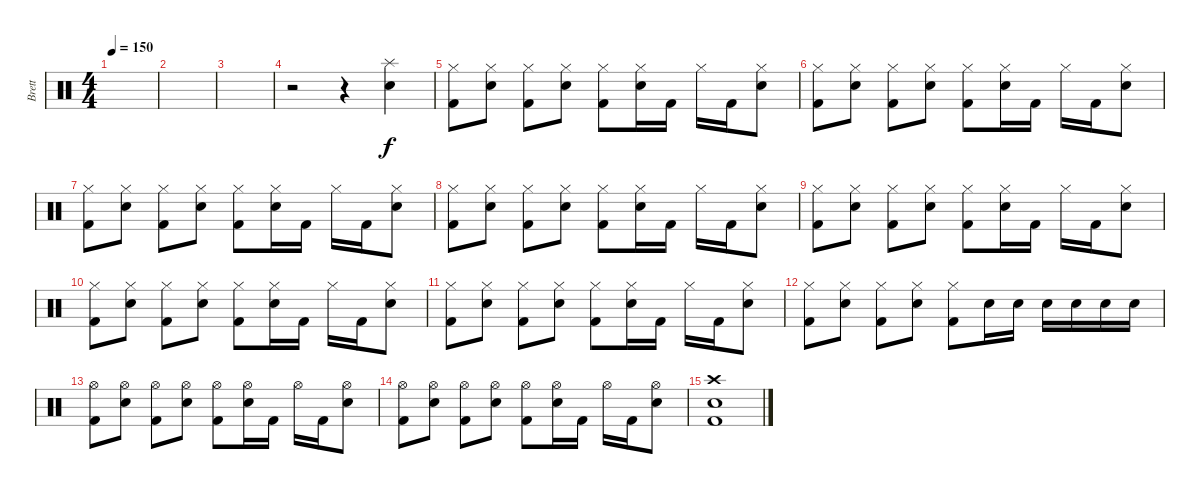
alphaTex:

\track ("Brett" "Brett") {instrument percussion}
\staff {score}
\articulation defaults
\ts (4 4)
\tempo 150
\clef neutral
\ks c
|
|
|
r.2 r.4 ("Splash (hit)" "Snare (hit) 2").4 |
("Hi-Hat (closed)" "Kick (hit) 2").8 ("Hi-Hat (closed)" "Snare (hit) 2").8 ("Hi-Hat (closed)" "Kick (hit) 2").8 ("Hi-Hat (closed)" "Snare (hit) 2").8 ("Hi-Hat (closed)" "Kick (hit) 2").8 ("Hi-Hat (closed)" "Snare (hit) 2").16 "Kick (hit) 2".16 "Hi-Hat (closed)".16 "Kick (hit) 2".16 ("Hi-Hat (closed)" "Snare (hit) 2").8 |
("Hi-Hat (closed)" "Kick (hit) 2").8 ("Hi-Hat (closed)" "Snare (hit) 2").8 ("Hi-Hat (closed)" "Kick (hit) 2").8 ("Hi-Hat (closed)" "Snare (hit) 2").8 ("Hi-Hat (closed)" "Kick (hit) 2").8 ("Hi-Hat (closed)" "Snare (hit) 2").16 "Kick (hit) 2".16 "Hi-Hat (closed)".16 "Kick (hit) 2".16 ("Hi-Hat (closed)" "Snare (hit) 2").8 |
("Hi-Hat (closed)" "Kick (hit) 2").8 ("Hi-Hat (closed)" "Snare (hit) 2").8 ("Hi-Hat (closed)" "Kick (hit) 2").8 ("Hi-Hat (closed)" "Snare (hit) 2").8 ("Hi-Hat (closed)" "Kick (hit) 2").8 ("Hi-Hat (closed)" "Snare (hit) 2").16 "Kick (hit) 2".16 "Hi-Hat (closed)".16 "Kick (hit) 2".16 ("Hi-Hat (closed)" "Snare (hit) 2").8 |
("Hi-Hat (closed)" "Kick (hit) 2").8 ("Hi-Hat (closed)" "Snare (hit) 2").8 ("Hi-Hat (closed)" "Kick (hit) 2").8 ("Hi-Hat (closed)" "Snare (hit) 2").8 ("Hi-Hat (closed)" "Kick (hit) 2").8 ("Hi-Hat (closed)" "Snare (hit) 2").16 "Kick (hit) 2".16 "Hi-Hat (closed)".16 "Kick (hit) 2".16 ("Hi-Hat (closed)" "Snare (hit) 2").8 |
("Hi-Hat (closed)" "Kick (hit) 2").8 ("Hi-Hat (closed)" "Snare (hit) 2").8 ("Hi-Hat (closed)" "Kick (hit) 2").8 ("Hi-Hat (closed)" "Snare (hit) 2").8 ("Hi-Hat (closed)" "Kick (hit) 2").8 ("Hi-Hat (closed)" "Snare (hit) 2").16 "Kick (hit) 2".16 "Hi-Hat (closed)".16 "Kick (hit) 2".16 ("Hi-Hat (closed)" "Snare (hit) 2").8 |
("Hi-Hat (closed)" "Kick (hit) 2").8 ("Hi-Hat (closed)" "Snare (hit) 2").8 ("Hi-Hat (closed)" "Kick (hit) 2").8 ("Hi-Hat (closed)" "Snare (hit) 2").8 ("Hi-Hat (closed)" "Kick (hit) 2").8 ("Hi-Hat (closed)" "Snare (hit) 2").16 "Kick (hit) 2".16 "Hi-Hat (closed)".16 "Kick (hit) 2".16 ("Hi-Hat (closed)" "Snare (hit) 2").8 |
("Hi-Hat (closed)" "Kick (hit) 2").8 ("Hi-Hat (closed)" "Snare (hit) 2").8 ("Hi-Hat (closed)" "Kick (hit) 2").8 ("Hi-Hat (closed)" "Snare (hit) 2").8 ("Hi-Hat (closed)" "Kick (hit) 2").8 ("Hi-Hat (closed)" "Snare (hit) 2").16 "Kick (hit) 2".16 "Hi-Hat (closed)".16 "Kick (hit) 2".16 ("Hi-Hat (closed)" "Snare (hit) 2").8 |
("Hi-Hat (closed)" "Kick (hit) 2").8 ("Hi-Hat (closed)" "Snare (hit) 2").8 ("Hi-Hat (closed)" "Kick (hit) 2").8 ("Hi-Hat (closed)" "Snare (hit) 2").8 ("Hi-Hat (closed)" "Kick (hit) 2").8 "Snare (hit) 2".16 "Snare (hit) 2".16 "Snare (hit) 2".16 "Snare (hit) 2".16 "Snare (hit) 2".16 "Snare (hit) 2".16 |
("Hi-Hat (open)" "Kick (hit) 2").8 ("Hi-Hat (open)" "Snare (hit) 2").8 ("Hi-Hat (open)" "Kick (hit) 2").8 ("Hi-Hat (open)" "Snare (hit) 2").8 ("Hi-Hat (open)" "Kick (hit) 2").8 ("Hi-Hat (open)" "Snare (hit) 2").16 "Kick (hit) 2".16 "Hi-Hat (open)".16 "Kick (hit) 2".16 ("Hi-Hat (open)" "Snare (hit) 2").8 |
("Hi-Hat (open)" "Kick (hit) 2").8 ("Hi-Hat (open)" "Snare (hit) 2").8 ("Hi-Hat (open)" "Kick (hit) 2").8 ("Hi-Hat (open)" "Snare (hit) 2").8 ("Hi-Hat (open)" "Kick (hit) 2").8 ("Hi-Hat (open)" "Snare (hit) 2").16 "Kick (hit) 2".16 "Hi-Hat (open)".16 "Kick (hit) 2".16 ("Hi-Hat (open)" "Snare (hit) 2").8 |
("Crash high (hit)" "Snare (hit) 2" "Kick (hit) 2").1
